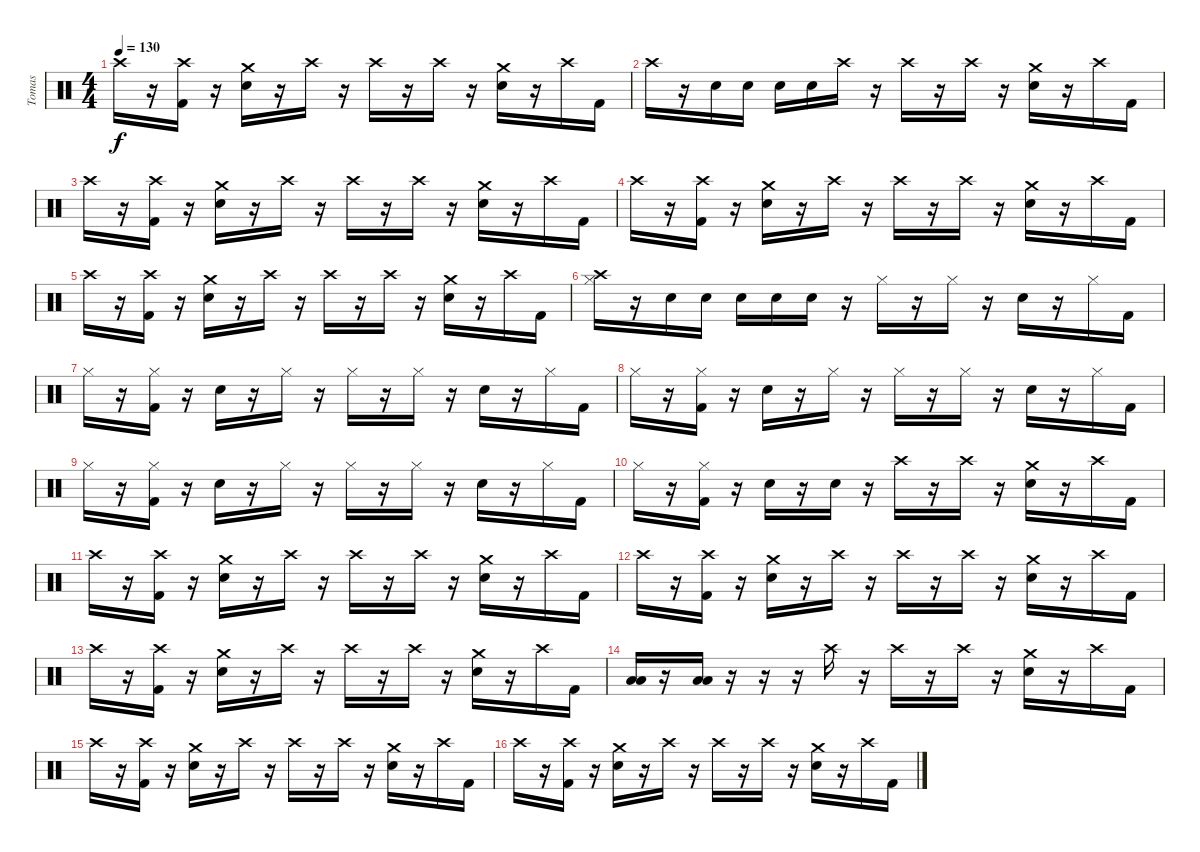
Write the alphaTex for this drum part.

\track ("Tomas" "Tomas") {instrument percussion}
\staff {score}
\articulation defaults
\ts (4 4)
\tempo 130
\clef neutral
\ks c "Crash high (hit)".16{dy f}
r.16 ("Kick (hit) 2" "Crash high (hit)").16 r.16 ("Electric Snare (hit)" "Crash medium (hit)").16 r.16 "Crash high (hit)".16 r.16 "Crash high (hit)".16 r.16 "Crash high (hit)".16 r.16 ("Electric Snare (hit)" "Crash medium (hit)").16 r.16 "Crash high (hit)".16 "Kick (hit) 2".16 |
"Crash high (hit)".16 r.16 "Snare (hit) 2".16 "Snare (hit) 2".16 "Snare (hit) 2".16 "Snare (hit) 2".16 "Crash high (hit)".16 r.16 "Crash high (hit)".16 r.16 "Crash high (hit)".16 r.16 ("Electric Snare (hit)" "Crash medium (hit)").16 r.16 "Crash high (hit)".16 "Kick (hit) 2".16 |
"Crash high (hit)".16 r.16 ("Kick (hit) 2" "Crash high (hit)").16 r.16 ("Electric Snare (hit)" "Crash medium (hit)").16 r.16 "Crash high (hit)".16 r.16 "Crash high (hit)".16 r.16 "Crash high (hit)".16 r.16 ("Electric Snare (hit)" "Crash medium (hit)").16 r.16 "Crash high (hit)".16 "Kick (hit) 2".16 |
"Crash high (hit)".16 r.16 ("Kick (hit) 2" "Crash high (hit)").16 r.16 ("Electric Snare (hit)" "Crash medium (hit)").16 r.16 "Crash high (hit)".16 r.16 "Crash high (hit)".16 r.16 "Crash high (hit)".16 r.16 ("Electric Snare (hit)" "Crash medium (hit)").16 r.16 "Crash high (hit)".16 "Kick (hit) 2".16 |
"Crash high (hit)".16 r.16 ("Kick (hit) 2" "Crash high (hit)").16 r.16 ("Electric Snare (hit)" "Crash medium (hit)").16 r.16 "Crash high (hit)".16 r.16 "Crash high (hit)".16 r.16 "Crash high (hit)".16 r.16 ("Electric Snare (hit)" "Crash medium (hit)").16 r.16 "Crash high (hit)".16 "Kick (hit) 2".16 |
("Hi-Hat (closed)" "Crash high (hit)").16 r.16 "Snare (hit) 2".16 "Snare (hit) 2".16 "Snare (hit) 2".16 "Snare (hit) 2".16 "Snare (hit) 2".16 r.16 "Hi-Hat (closed)".16 r.16 "Hi-Hat (closed)".16 r.16 "Electric Snare (hit)".16 r.16 "Hi-Hat (closed)".16 "Kick (hit) 2".16 |
"Hi-Hat (closed)".16 r.16 ("Hi-Hat (closed)" "Kick (hit) 2").16 r.16 "Electric Snare (hit)".16 r.16 "Hi-Hat (closed)".16 r.16 "Hi-Hat (closed)".16 r.16 "Hi-Hat (closed)".16 r.16 "Electric Snare (hit)".16 r.16 "Hi-Hat (closed)".16 "Kick (hit) 2".16 |
"Hi-Hat (closed)".16 r.16 ("Hi-Hat (closed)" "Kick (hit) 2").16 r.16 "Electric Snare (hit)".16 r.16 "Hi-Hat (closed)".16 r.16 "Hi-Hat (closed)".16 r.16 "Hi-Hat (closed)".16 r.16 "Electric Snare (hit)".16 r.16 "Hi-Hat (closed)".16 "Kick (hit) 2".16 |
"Hi-Hat (closed)".16 r.16 ("Hi-Hat (closed)" "Kick (hit) 2").16 r.16 "Electric Snare (hit)".16 r.16 "Hi-Hat (closed)".16 r.16 "Hi-Hat (closed)".16 r.16 "Hi-Hat (closed)".16 r.16 "Electric Snare (hit)".16 r.16 "Hi-Hat (closed)".16 "Kick (hit) 2".16 |
"Hi-Hat (closed)".16 r.16 ("Hi-Hat (closed)" "Kick (hit) 2").16 r.16 "Electric Snare (hit)".16 r.16 "Electric Snare (hit)".16 r.16 "Crash high (hit)".16 r.16 "Crash high (hit)".16 r.16 ("Electric Snare (hit)" "Crash medium (hit)").16 r.16 "Crash high (hit)".16 "Kick (hit) 2".16 |
"Crash high (hit)".16 r.16 ("Kick (hit) 2" "Crash high (hit)").16 r.16 ("Electric Snare (hit)" "Crash medium (hit)").16 r.16 "Crash high (hit)".16 r.16 "Crash high (hit)".16 r.16 "Crash high (hit)".16 r.16 ("Electric Snare (hit)" "Crash medium (hit)").16 r.16 "Crash high (hit)".16 "Kick (hit) 2".16 |
"Crash high (hit)".16 r.16 ("Kick (hit) 2" "Crash high (hit)").16 r.16 ("Electric Snare (hit)" "Crash medium (hit)").16 r.16 "Crash high (hit)".16 r.16 "Crash high (hit)".16 r.16 "Crash high (hit)".16 r.16 ("Electric Snare (hit)" "Crash medium (hit)").16 r.16 "Crash high (hit)".16 "Kick (hit) 2".16 |
"Crash high (hit)".16 r.16 ("Kick (hit) 2" "Crash high (hit)").16 r.16 ("Electric Snare (hit)" "Crash medium (hit)").16 r.16 "Crash high (hit)".16 r.16 "Crash high (hit)".16 r.16 "Crash high (hit)".16 r.16 ("Electric Snare (hit)" "Crash medium (hit)").16 r.16 "Crash high (hit)".16 "Kick (hit) 2".16 |
("Low Tom (hit)" "Low Floor Tom (hit)").16 r.16 ("Low Tom (hit)" "Low Floor Tom (hit)").16 r.16 r.16 r.16 "Crash high (hit)".16 r.16 "Crash high (hit)".16 r.16 "Crash high (hit)".16 r.16 ("Electric Snare (hit)" "Crash medium (hit)").16 r.16 "Crash high (hit)".16 "Kick (hit) 2".16 |
"Crash high (hit)".16 r.16 ("Kick (hit) 2" "Crash high (hit)").16 r.16 ("Electric Snare (hit)" "Crash medium (hit)").16 r.16 "Crash high (hit)".16 r.16 "Crash high (hit)".16 r.16 "Crash high (hit)".16 r.16 ("Electric Snare (hit)" "Crash medium (hit)").16 r.16 "Crash high (hit)".16 "Kick (hit) 2".16 |
"Crash high (hit)".16 r.16 ("Kick (hit) 2" "Crash high (hit)").16 r.16 ("Electric Snare (hit)" "Crash medium (hit)").16 r.16 "Crash high (hit)".16 r.16 "Crash high (hit)".16 r.16 "Crash high (hit)".16 r.16 ("Electric Snare (hit)" "Crash medium (hit)").16 r.16 "Crash high (hit)".16 "Kick (hit) 2".16
